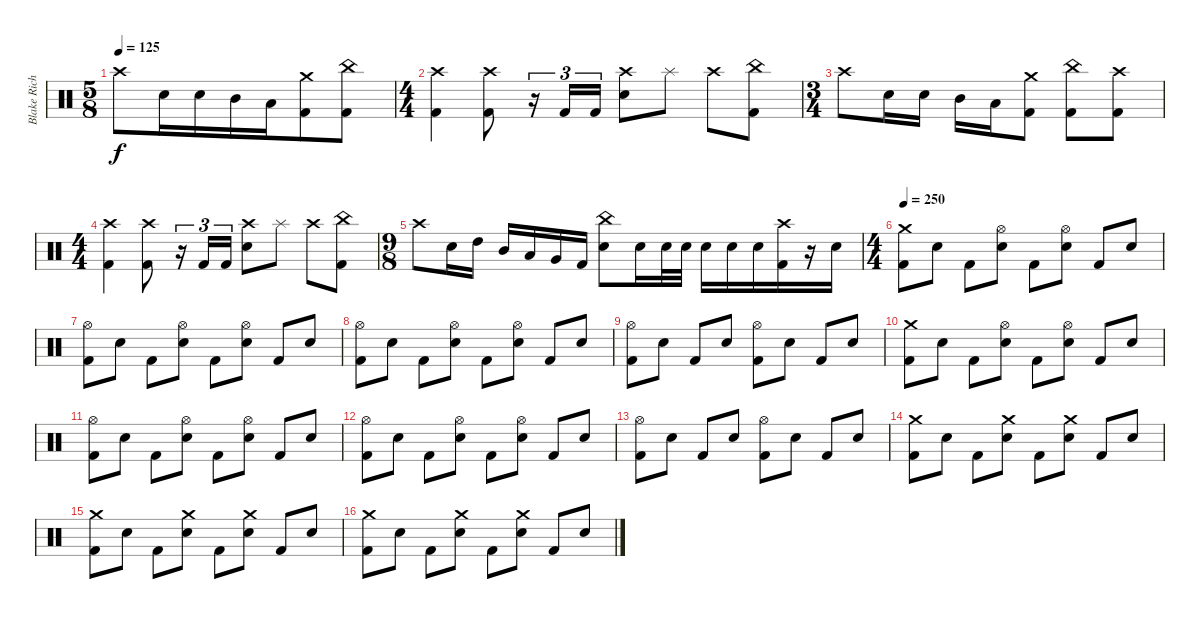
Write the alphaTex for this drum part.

\track ("Blake Richardson - Drums" "Blake Rich") {instrument percussion}
\staff {score}
\articulation defaults
\ts (5 8)
\tempo 125
\clef neutral
\ks c "Crash high (hit)".8{dy f beam merge} "Electric Snare (hit)".16 "Electric Snare (hit)".16 "Mid Tom (hit)".16 "Low Tom (hit)".16{beam merge}
("Crash medium (hit)" "Kick (hit) 2").8{beam merge} ("China (hit)" "Kick (hit) 2").8 |
\ts (4 4)
("Crash high (hit)" "Kick (hit) 2").4 ("Crash high (hit)" "Kick (hit) 2").8 r.16{tu (3 2)} "Kick (hit) 2".16{tu (3 2)} "Kick (hit) 2".16{tu (3 2)} ("Crash high (hit)" "Electric Snare (hit)").8 "Splash (hit)".8 "Crash high (hit)".8 ("China (hit)" "Kick (hit) 2").8 |
\ts (3 4)
"Crash high (hit)".8{beam merge} "Electric Snare (hit)".16 "Electric Snare (hit)".16 "Mid Tom (hit)".16 "Low Tom (hit)".16{beam merge} ("Crash medium (hit)" "Kick (hit) 2").8{beam split} ("China (hit)" "Kick (hit) 2").8 ("Crash high (hit)" "Kick (hit) 2").8 |
\ts (4 4)
("Crash high (hit)" "Kick (hit) 2").4 ("Crash high (hit)" "Kick (hit) 2").8 r.16{tu (3 2)} "Kick (hit) 2".16{tu (3 2)} "Kick (hit) 2".16{tu (3 2)} ("Crash high (hit)" "Electric Snare (hit)").8 "Splash (hit)".8 "Crash high (hit)".8 ("China (hit)" "Kick (hit) 2").8 |
\ts (9 8)
"Crash high (hit)".8 "Electric Snare (hit)".16 "High Tom (hit)".16{beam split} "Mid Tom (hit)".16 "Low Tom (hit)".16{beam merge} "Very Low Tom (hit)".16 "Kick (hit) 2".16{beam split} ("China (hit)" "Electric Snare (hit)").8 "Electric Snare (hit)".16 "Electric Snare (hit)".32 "Electric Snare (hit)".32 "Electric Snare (hit)".16 "Electric Snare (hit)".16 "Electric Snare (hit)".16 ("Crash high (hit)" "Kick (hit) 2").16 r.16 "Electric Snare (hit)".16 |
\ts (4 4)
\tempo 250
("Crash medium (hit)" "Kick (hit) 2").8 "Electric Snare (hit)".8 "Kick (hit) 2".8 ("Hi-Hat (open)" "Electric Snare (hit)").8{beam split} "Kick (hit) 2".8 ("Hi-Hat (open)" "Electric Snare (hit)").8 "Kick (hit) 2".8 "Electric Snare (hit)".8 |
("Hi-Hat (open)" "Kick (hit) 2").8 "Electric Snare (hit)".8 "Kick (hit) 2".8 ("Hi-Hat (open)" "Electric Snare (hit)").8 "Kick (hit) 2".8 ("Hi-Hat (open)" "Electric Snare (hit)").8 "Kick (hit) 2".8 "Electric Snare (hit)".8 |
("Hi-Hat (open)" "Kick (hit) 2").8 "Electric Snare (hit)".8 "Kick (hit) 2".8 ("Hi-Hat (open)" "Electric Snare (hit)").8 "Kick (hit) 2".8 ("Hi-Hat (open)" "Electric Snare (hit)").8 "Kick (hit) 2".8 "Electric Snare (hit)".8 |
("Hi-Hat (open)" "Kick (hit) 2").8 "Electric Snare (hit)".8 "Kick (hit) 2".8 "Electric Snare (hit)".8 ("Hi-Hat (open)" "Kick (hit) 2").8 "Electric Snare (hit)".8 "Kick (hit) 2".8 "Electric Snare (hit)".8 |
("Crash medium (hit)" "Kick (hit) 2").8 "Electric Snare (hit)".8 "Kick (hit) 2".8 ("Hi-Hat (open)" "Electric Snare (hit)").8 "Kick (hit) 2".8 ("Hi-Hat (open)" "Electric Snare (hit)").8 "Kick (hit) 2".8 "Electric Snare (hit)".8 |
("Hi-Hat (open)" "Kick (hit) 2").8 "Electric Snare (hit)".8 "Kick (hit) 2".8 ("Hi-Hat (open)" "Electric Snare (hit)").8 "Kick (hit) 2".8 ("Hi-Hat (open)" "Electric Snare (hit)").8 "Kick (hit) 2".8 "Electric Snare (hit)".8 |
("Hi-Hat (open)" "Kick (hit) 2").8 "Electric Snare (hit)".8 "Kick (hit) 2".8 ("Hi-Hat (open)" "Electric Snare (hit)").8 "Kick (hit) 2".8 ("Hi-Hat (open)" "Electric Snare (hit)").8 "Kick (hit) 2".8 "Electric Snare (hit)".8 |
("Hi-Hat (open)" "Kick (hit) 2").8 "Electric Snare (hit)".8 "Kick (hit) 2".8 "Electric Snare (hit)".8 ("Hi-Hat (open)" "Kick (hit) 2").8 "Electric Snare (hit)".8 "Kick (hit) 2".8 "Electric Snare (hit)".8 |
("Crash medium (hit)" "Kick (hit) 2").8 "Electric Snare (hit)".8 "Kick (hit) 2".8 ("Crash medium (hit)" "Electric Snare (hit)").8 "Kick (hit) 2".8 ("Crash medium (hit)" "Electric Snare (hit)").8 "Kick (hit) 2".8 "Electric Snare (hit)".8 |
("Crash medium (hit)" "Kick (hit) 2").8 "Electric Snare (hit)".8 "Kick (hit) 2".8 ("Crash medium (hit)" "Electric Snare (hit)").8 "Kick (hit) 2".8 ("Crash medium (hit)" "Electric Snare (hit)").8 "Kick (hit) 2".8 "Electric Snare (hit)".8 |
("Crash medium (hit)" "Kick (hit) 2").8 "Electric Snare (hit)".8 "Kick (hit) 2".8 ("Crash medium (hit)" "Electric Snare (hit)").8 "Kick (hit) 2".8 ("Crash medium (hit)" "Electric Snare (hit)").8 "Kick (hit) 2".8 "Electric Snare (hit)".8
